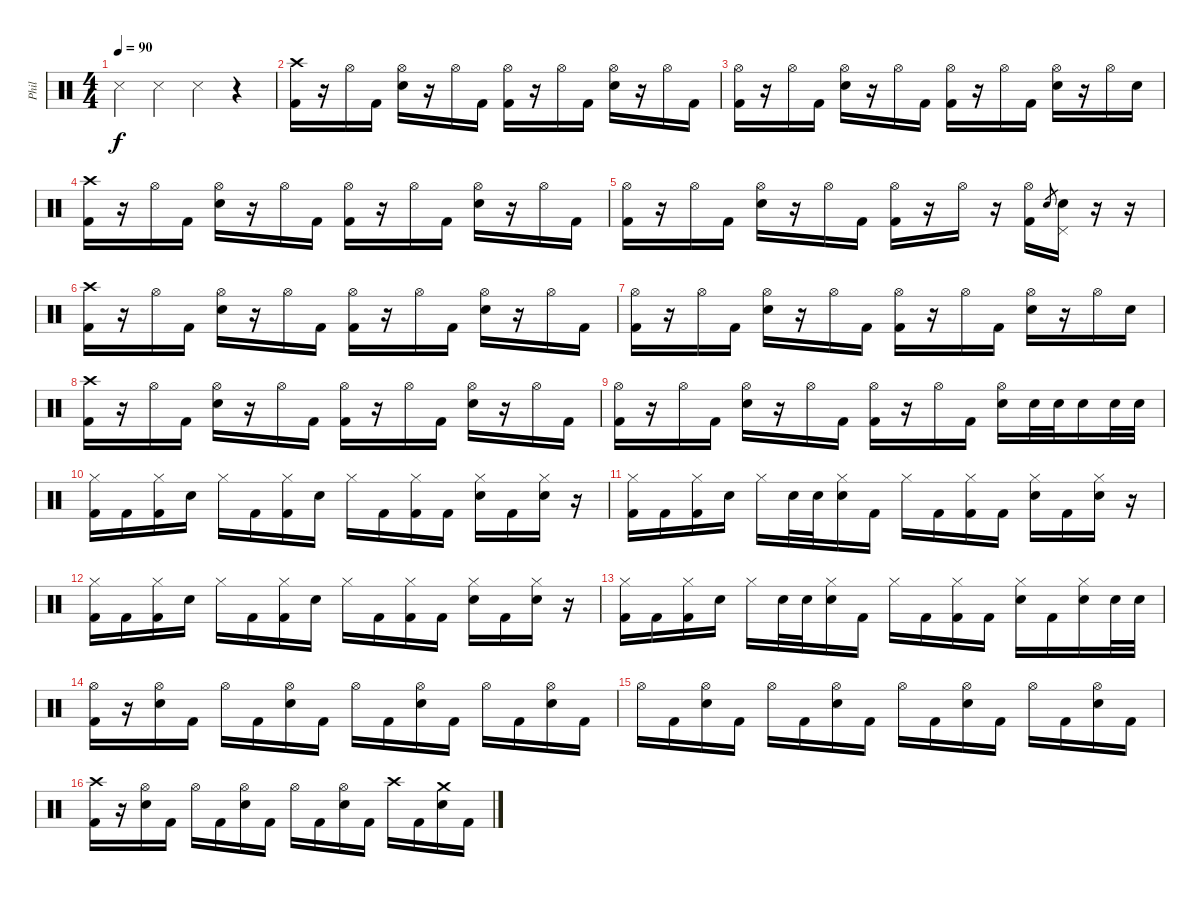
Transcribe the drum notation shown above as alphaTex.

\track ("Phil" "Phil") {instrument percussion}
\staff {score}
\articulation defaults
\ts (4 4)
\tempo 90
\clef neutral
\ks c "Snare (side stick) 3".4{dy f} "Snare (side stick) 3".4 "Snare (side stick) 3".4
r.4 |
("Crash high (hit)" "Kick (hit) 2").16 r.16 "Hi-Hat (open)".16 "Kick (hit) 2".16 ("Hi-Hat (open)" "Electric Snare (hit)").16 r.16 "Hi-Hat (open)".16 "Kick (hit) 2".16 ("Hi-Hat (open)" "Kick (hit) 2").16 r.16 "Hi-Hat (open)".16 "Kick (hit) 2".16 ("Hi-Hat (open)" "Electric Snare (hit)").16 r.16 "Hi-Hat (open)".16 "Kick (hit) 2".16 |
("Hi-Hat (open)" "Kick (hit) 2").16 r.16 "Hi-Hat (open)".16 "Kick (hit) 2".16 ("Hi-Hat (open)" "Electric Snare (hit)").16 r.16 "Hi-Hat (open)".16 "Kick (hit) 2".16 ("Hi-Hat (open)" "Kick (hit) 2").16 r.16 "Hi-Hat (open)".16 "Kick (hit) 2".16 ("Hi-Hat (open)" "Electric Snare (hit)").16 r.16 "Hi-Hat (open)".16 "Electric Snare (hit)".16 |
("Crash high (hit)" "Kick (hit) 2").16 r.16 "Hi-Hat (open)".16 "Kick (hit) 2".16 ("Hi-Hat (open)" "Electric Snare (hit)").16 r.16 "Hi-Hat (open)".16 "Kick (hit) 2".16 ("Hi-Hat (open)" "Kick (hit) 2").16 r.16 "Hi-Hat (open)".16 "Kick (hit) 2".16 ("Hi-Hat (open)" "Electric Snare (hit)").16 r.16 "Hi-Hat (open)".16 "Kick (hit) 2".16 |
("Hi-Hat (open)" "Kick (hit) 2").16 r.16 "Hi-Hat (open)".16 "Kick (hit) 2".16 ("Hi-Hat (open)" "Electric Snare (hit)").16 r.16 "Hi-Hat (open)".16 "Kick (hit) 2".16 ("Hi-Hat (open)" "Kick (hit) 2").16 r.16 "Hi-Hat (open)".16 r.16 ("Hi-Hat (open)" "Kick (hit) 2").16 "Electric Snare (hit)".8{gr} ("Pedal Hi-Hat (hit)" "Electric Snare (hit)").16 r.16 r.16 |
("Crash high (hit)" "Kick (hit) 2").16 r.16 "Hi-Hat (open)".16 "Kick (hit) 2".16 ("Hi-Hat (open)" "Electric Snare (hit)").16 r.16 "Hi-Hat (open)".16 "Kick (hit) 2".16 ("Hi-Hat (open)" "Kick (hit) 2").16 r.16 "Hi-Hat (open)".16 "Kick (hit) 2".16 ("Hi-Hat (open)" "Electric Snare (hit)").16 r.16 "Hi-Hat (open)".16 "Kick (hit) 2".16 |
("Hi-Hat (open)" "Kick (hit) 2").16 r.16 "Hi-Hat (open)".16 "Kick (hit) 2".16 ("Hi-Hat (open)" "Electric Snare (hit)").16 r.16 "Hi-Hat (open)".16 "Kick (hit) 2".16 ("Hi-Hat (open)" "Kick (hit) 2").16 r.16 "Hi-Hat (open)".16 "Kick (hit) 2".16 ("Hi-Hat (open)" "Electric Snare (hit)").16 r.16 "Hi-Hat (open)".16 "Electric Snare (hit)".16 |
("Crash high (hit)" "Kick (hit) 2").16 r.16 "Hi-Hat (open)".16 "Kick (hit) 2".16 ("Hi-Hat (open)" "Electric Snare (hit)").16 r.16 "Hi-Hat (open)".16 "Kick (hit) 2".16 ("Hi-Hat (open)" "Kick (hit) 2").16 r.16 "Hi-Hat (open)".16 "Kick (hit) 2".16 ("Hi-Hat (open)" "Electric Snare (hit)").16 r.16 "Hi-Hat (open)".16 "Kick (hit) 2".16 |
("Hi-Hat (open)" "Kick (hit) 2").16 r.16 "Hi-Hat (open)".16 "Kick (hit) 2".16 ("Hi-Hat (open)" "Electric Snare (hit)").16 r.16 "Hi-Hat (open)".16 "Kick (hit) 2".16 ("Hi-Hat (open)" "Kick (hit) 2").16 r.16 "Hi-Hat (open)".16 "Kick (hit) 2".16 ("Hi-Hat (open)" "Electric Snare (hit)").16 "Electric Snare (hit)".32 "Electric Snare (hit)".32 "Electric Snare (hit)".16 "Electric Snare (hit)".32 "Electric Snare (hit)".32 |
("Hi-Hat (closed)" "Kick (hit) 2").16 "Kick (hit) 2".16 ("Hi-Hat (closed)" "Kick (hit) 2").16 "Electric Snare (hit)".16 "Hi-Hat (closed)".16 "Kick (hit) 2".16 ("Hi-Hat (closed)" "Kick (hit) 2").16 "Electric Snare (hit)".16 "Hi-Hat (closed)".16 "Kick (hit) 2".16 ("Hi-Hat (closed)" "Kick (hit) 2").16 "Kick (hit) 2".16 ("Hi-Hat (closed)" "Electric Snare (hit)").16 "Kick (hit) 2".16 ("Hi-Hat (closed)" "Electric Snare (hit)").16 r.16 |
("Hi-Hat (closed)" "Kick (hit) 2").16 "Kick (hit) 2".16 ("Hi-Hat (closed)" "Kick (hit) 2").16 "Electric Snare (hit)".16 "Hi-Hat (closed)".16 "Electric Snare (hit)".32 "Electric Snare (hit)".32 ("Hi-Hat (closed)" "Electric Snare (hit)").16 "Kick (hit) 2".16 "Hi-Hat (closed)".16 "Kick (hit) 2".16 ("Hi-Hat (closed)" "Kick (hit) 2").16 "Kick (hit) 2".16 ("Hi-Hat (closed)" "Electric Snare (hit)").16 "Kick (hit) 2".16 ("Hi-Hat (closed)" "Electric Snare (hit)").16 r.16 |
("Hi-Hat (closed)" "Kick (hit) 2").16 "Kick (hit) 2".16 ("Hi-Hat (closed)" "Kick (hit) 2").16 "Electric Snare (hit)".16 "Hi-Hat (closed)".16 "Kick (hit) 2".16 ("Hi-Hat (closed)" "Kick (hit) 2").16 "Electric Snare (hit)".16 "Hi-Hat (closed)".16 "Kick (hit) 2".16 ("Hi-Hat (closed)" "Kick (hit) 2").16 "Kick (hit) 2".16 ("Hi-Hat (closed)" "Electric Snare (hit)").16 "Kick (hit) 2".16 ("Hi-Hat (closed)" "Electric Snare (hit)").16 r.16 |
("Hi-Hat (closed)" "Kick (hit) 2").16 "Kick (hit) 2".16 ("Hi-Hat (closed)" "Kick (hit) 2").16 "Electric Snare (hit)".16 "Hi-Hat (closed)".16 "Electric Snare (hit)".32 "Electric Snare (hit)".32 ("Hi-Hat (closed)" "Electric Snare (hit)").16 "Kick (hit) 2".16 "Hi-Hat (closed)".16 "Kick (hit) 2".16 ("Hi-Hat (closed)" "Kick (hit) 2").16 "Kick (hit) 2".16 ("Hi-Hat (closed)" "Electric Snare (hit)").16 "Kick (hit) 2".16 ("Hi-Hat (closed)" "Electric Snare (hit)").16 "Electric Snare (hit)".32 "Electric Snare (hit)".32 |
("Hi-Hat (open)" "Kick (hit) 2").16 r.16 ("Hi-Hat (open)" "Electric Snare (hit)").16 "Kick (hit) 2".16 "Hi-Hat (open)".16 "Kick (hit) 2".16 ("Hi-Hat (open)" "Electric Snare (hit)").16 "Kick (hit) 2".16 "Hi-Hat (open)".16 "Kick (hit) 2".16 ("Hi-Hat (open)" "Electric Snare (hit)").16 "Kick (hit) 2".16 "Hi-Hat (open)".16 "Kick (hit) 2".16 ("Hi-Hat (open)" "Electric Snare (hit)").16 "Kick (hit) 2".16 |
"Hi-Hat (open)".16 "Kick (hit) 2".16 ("Hi-Hat (open)" "Electric Snare (hit)").16 "Kick (hit) 2".16 "Hi-Hat (open)".16 "Kick (hit) 2".16 ("Hi-Hat (open)" "Electric Snare (hit)").16 "Kick (hit) 2".16 "Hi-Hat (open)".16 "Kick (hit) 2".16 ("Hi-Hat (open)" "Electric Snare (hit)").16 "Kick (hit) 2".16 "Hi-Hat (open)".16 "Kick (hit) 2".16 ("Hi-Hat (open)" "Electric Snare (hit)").16 "Kick (hit) 2".16 |
("Crash high (hit)" "Kick (hit) 2").16 r.16 ("Hi-Hat (open)" "Electric Snare (hit)").16 "Kick (hit) 2".16 "Hi-Hat (open)".16 "Kick (hit) 2".16 ("Hi-Hat (open)" "Electric Snare (hit)").16 "Kick (hit) 2".16 "Hi-Hat (open)".16 "Kick (hit) 2".16 ("Hi-Hat (open)" "Electric Snare (hit)").16 "Kick (hit) 2".16 "Crash high (hit)".16 "Kick (hit) 2".16 ("Crash medium (hit)" "Electric Snare (hit)").16 "Kick (hit) 2".16
